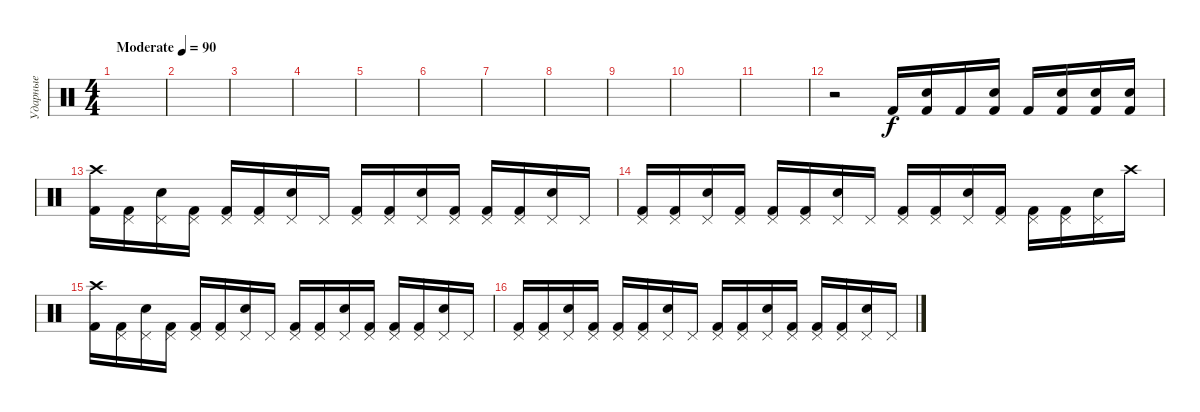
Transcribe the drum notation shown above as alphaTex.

\track ("Ударные" "Ударные") {instrument percussion}
\staff {score}
\articulation defaults
\ts (4 4)
\tempo (90 "Moderate")
\clef neutral
\ks c
|
|
|
|
|
|
|
|
|
|
|
r.2 "Kick (hit) 2".16 ("Kick (hit) 2" "Snare (hit) 2").16 "Kick (hit) 2".16 ("Kick (hit) 2" "Snare (hit) 2").16 "Kick (hit) 2".16 ("Kick (hit) 2" "Snare (hit) 2").16 ("Kick (hit) 2" "Snare (hit) 2").16 ("Kick (hit) 2" "Snare (hit) 2").16 |
("Crash high (hit)" "Kick (hit) 2").16 ("Pedal Hi-Hat (hit)" "Kick (hit) 2").16 ("Pedal Hi-Hat (hit)" "Snare (hit) 2").16 ("Pedal Hi-Hat (hit)" "Kick (hit) 2").16 ("Pedal Hi-Hat (hit)" "Kick (hit) 2").16 ("Pedal Hi-Hat (hit)" "Kick (hit) 2").16 ("Pedal Hi-Hat (hit)" "Snare (hit) 2").16 "Pedal Hi-Hat (hit)".16 ("Pedal Hi-Hat (hit)" "Kick (hit) 2").16 ("Pedal Hi-Hat (hit)" "Kick (hit) 2").16 ("Pedal Hi-Hat (hit)" "Snare (hit) 2").16 ("Pedal Hi-Hat (hit)" "Kick (hit) 2").16 ("Pedal Hi-Hat (hit)" "Kick (hit) 2").16 ("Pedal Hi-Hat (hit)" "Kick (hit) 2").16 ("Pedal Hi-Hat (hit)" "Snare (hit) 2").16 "Pedal Hi-Hat (hit)".16 |
("Pedal Hi-Hat (hit)" "Kick (hit) 2").16 ("Pedal Hi-Hat (hit)" "Kick (hit) 2").16 ("Pedal Hi-Hat (hit)" "Snare (hit) 2").16 ("Pedal Hi-Hat (hit)" "Kick (hit) 2").16 ("Pedal Hi-Hat (hit)" "Kick (hit) 2").16 ("Pedal Hi-Hat (hit)" "Kick (hit) 2").16 ("Pedal Hi-Hat (hit)" "Snare (hit) 2").16 "Pedal Hi-Hat (hit)".16 ("Pedal Hi-Hat (hit)" "Kick (hit) 2").16 ("Pedal Hi-Hat (hit)" "Kick (hit) 2").16 ("Pedal Hi-Hat (hit)" "Snare (hit) 2").16 ("Pedal Hi-Hat (hit)" "Kick (hit) 2").16 ("Pedal Hi-Hat (hit)" "Kick (hit) 2").16 ("Pedal Hi-Hat (hit)" "Kick (hit) 2").16 ("Pedal Hi-Hat (hit)" "Snare (hit) 2").16 "Crash high (hit)".16 |
("Crash high (hit)" "Kick (hit) 2").16 ("Pedal Hi-Hat (hit)" "Kick (hit) 2").16 ("Pedal Hi-Hat (hit)" "Snare (hit) 2").16 ("Pedal Hi-Hat (hit)" "Kick (hit) 2").16 ("Pedal Hi-Hat (hit)" "Kick (hit) 2").16 ("Pedal Hi-Hat (hit)" "Kick (hit) 2").16 ("Pedal Hi-Hat (hit)" "Snare (hit) 2").16 "Pedal Hi-Hat (hit)".16 ("Pedal Hi-Hat (hit)" "Kick (hit) 2").16 ("Pedal Hi-Hat (hit)" "Kick (hit) 2").16 ("Pedal Hi-Hat (hit)" "Snare (hit) 2").16 ("Pedal Hi-Hat (hit)" "Kick (hit) 2").16 ("Pedal Hi-Hat (hit)" "Kick (hit) 2").16 ("Pedal Hi-Hat (hit)" "Kick (hit) 2").16 ("Pedal Hi-Hat (hit)" "Snare (hit) 2").16 "Pedal Hi-Hat (hit)".16 |
("Pedal Hi-Hat (hit)" "Kick (hit) 2").16 ("Pedal Hi-Hat (hit)" "Kick (hit) 2").16 ("Pedal Hi-Hat (hit)" "Snare (hit) 2").16 ("Pedal Hi-Hat (hit)" "Kick (hit) 2").16 ("Pedal Hi-Hat (hit)" "Kick (hit) 2").16 ("Pedal Hi-Hat (hit)" "Kick (hit) 2").16 ("Pedal Hi-Hat (hit)" "Snare (hit) 2").16 "Pedal Hi-Hat (hit)".16 ("Pedal Hi-Hat (hit)" "Kick (hit) 2").16 ("Pedal Hi-Hat (hit)" "Kick (hit) 2").16 ("Pedal Hi-Hat (hit)" "Snare (hit) 2").16 ("Pedal Hi-Hat (hit)" "Kick (hit) 2").16 ("Pedal Hi-Hat (hit)" "Kick (hit) 2").16 ("Pedal Hi-Hat (hit)" "Kick (hit) 2").16 ("Pedal Hi-Hat (hit)" "Snare (hit) 2").16 "Pedal Hi-Hat (hit)".16
